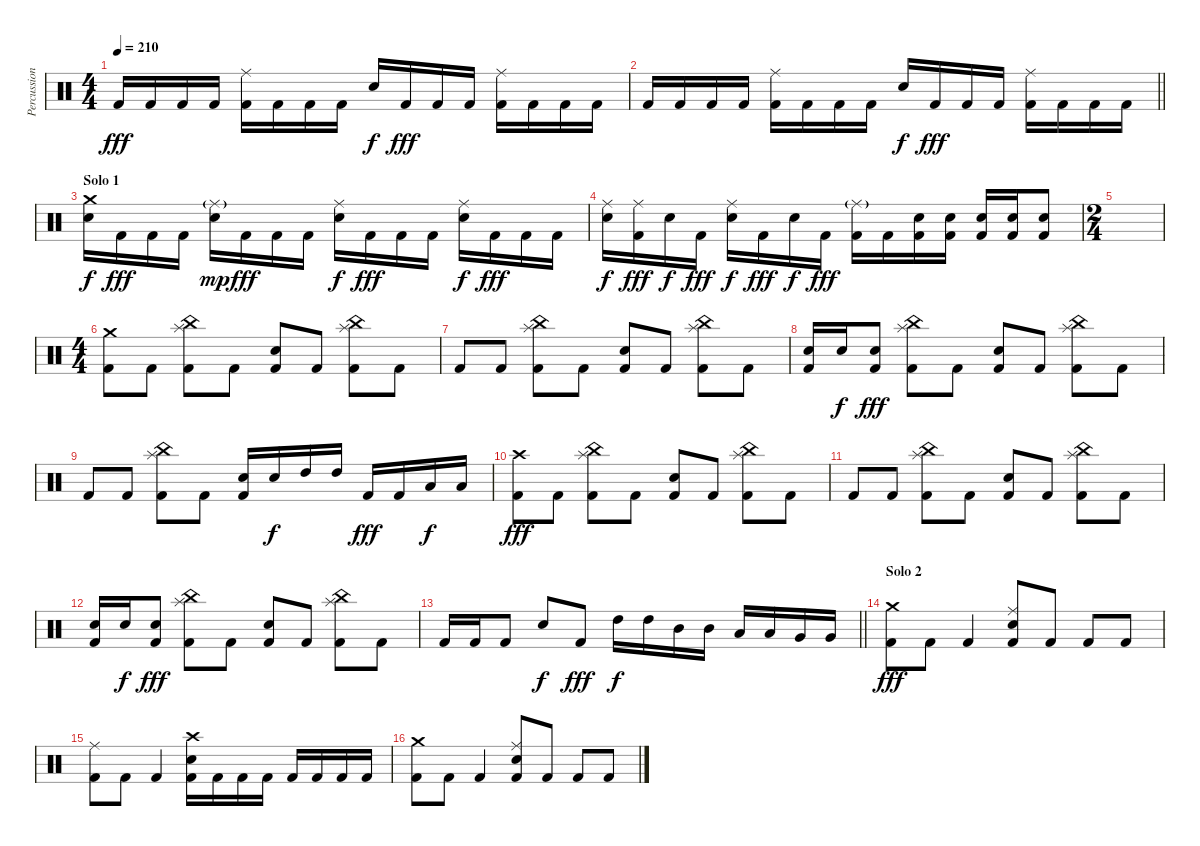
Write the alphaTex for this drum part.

\track ("Percussions" "Percussion") {instrument percussion}
\staff {score}
\articulation defaults
\ts (4 4)
\tempo 210
\clef neutral
\ks c "Kick (hit) 2".16{dy fff} "Kick (hit) 2".16 "Kick (hit) 2".16 "Kick (hit) 2".16
("Ride (middle)" "Kick (hit) 2").16 "Kick (hit) 2".16 "Kick (hit) 2".16 "Kick (hit) 2".16 "Electric Snare (hit)".16{dy f} "Kick (hit) 2".16{dy fff} "Kick (hit) 2".16 "Kick (hit) 2".16 ("Ride (middle)" "Kick (hit) 2").16 "Kick (hit) 2".16 "Kick (hit) 2".16 "Kick (hit) 2".16 |
\barLineRight lightlight "Kick (hit) 2".16 "Kick (hit) 2".16 "Kick (hit) 2".16 "Kick (hit) 2".16
("Ride (middle)" "Kick (hit) 2").16 "Kick (hit) 2".16 "Kick (hit) 2".16 "Kick (hit) 2".16 "Electric Snare (hit)".16{dy f} "Kick (hit) 2".16{dy fff} "Kick (hit) 2".16 "Kick (hit) 2".16 ("Ride (middle)" "Kick (hit) 2").16 "Kick (hit) 2".16 "Kick (hit) 2".16 "Kick (hit) 2".16 |
\section ("" "Solo 1")
("Crash medium (hit)" "Electric Snare (hit)").16{dy f} "Kick (hit) 2".16{dy fff} "Kick (hit) 2".16 "Kick (hit) 2".16 ("Ride (middle)"{g} "Electric Snare (hit)").16{dy mp} "Kick (hit) 2".16{dy fff} "Kick (hit) 2".16 "Kick (hit) 2".16 ("Ride (middle)" "Electric Snare (hit)").16{dy f} "Kick (hit) 2".16{dy fff} "Kick (hit) 2".16 "Kick (hit) 2".16 ("Ride (middle)" "Electric Snare (hit)").16{dy f} "Kick (hit) 2".16{dy fff} "Kick (hit) 2".16 "Kick (hit) 2".16 |
("Ride (middle)" "Electric Snare (hit)").16{dy f} ("Ride (middle)" "Kick (hit) 2").16{dy fff} "Electric Snare (hit)".16{dy f} "Kick (hit) 2".16{dy fff} ("Ride (middle)" "Electric Snare (hit)").16{dy f} "Kick (hit) 2".16{dy fff} "Electric Snare (hit)".16{dy f} "Kick (hit) 2".16{dy fff} ("Ride (middle)"{g} "Kick (hit) 2").16 "Kick (hit) 2".16 ("Electric Snare (hit)" "Kick (hit) 2").16 ("Electric Snare (hit)" "Kick (hit) 2").16 ("Electric Snare (hit)" "Kick (hit) 2").16 ("Electric Snare (hit)" "Kick (hit) 2").16 ("Electric Snare (hit)" "Kick (hit) 2").8 |
\ts (2 4)
|
\ts (4 4)
("Crash medium (hit)" "Kick (hit) 2").8 "Kick (hit) 2".8 ("Splash (hit)" "China (hit)" "Kick (hit) 2").8 "Kick (hit) 2".8 ("Electric Snare (hit)" "Kick (hit) 2").8 "Kick (hit) 2".8 ("Splash (hit)" "China (hit)" "Kick (hit) 2").8 "Kick (hit) 2".8 |
"Kick (hit) 2".8 "Kick (hit) 2".8 ("Splash (hit)" "China (hit)" "Kick (hit) 2").8 "Kick (hit) 2".8 ("Electric Snare (hit)" "Kick (hit) 2").8 "Kick (hit) 2".8 ("Splash (hit)" "China (hit)" "Kick (hit) 2").8 "Kick (hit) 2".8 |
("Electric Snare (hit)" "Kick (hit) 2").16 "Electric Snare (hit)".16{dy f} ("Electric Snare (hit)" "Kick (hit) 2").8{dy fff} ("Splash (hit)" "China (hit)" "Kick (hit) 2").8 "Kick (hit) 2".8 ("Electric Snare (hit)" "Kick (hit) 2").8 "Kick (hit) 2".8 ("Splash (hit)" "China (hit)" "Kick (hit) 2").8 "Kick (hit) 2".8 |
"Kick (hit) 2".8 "Kick (hit) 2".8 ("Splash (hit)" "China (hit)" "Kick (hit) 2").8 "Kick (hit) 2".8 ("Electric Snare (hit)" "Kick (hit) 2").16 "Electric Snare (hit)".16{dy f} "High Tom (hit)".16 "High Tom (hit)".16 "Kick (hit) 2".16{dy fff} "Kick (hit) 2".16 "Low Tom (hit)".16{dy f} "Low Tom (hit)".16 |
("Crash high (hit)" "Kick (hit) 2").8{dy fff} "Kick (hit) 2".8 ("Splash (hit)" "China (hit)" "Kick (hit) 2").8 "Kick (hit) 2".8 ("Electric Snare (hit)" "Kick (hit) 2").8 "Kick (hit) 2".8 ("Splash (hit)" "China (hit)" "Kick (hit) 2").8 "Kick (hit) 2".8 |
"Kick (hit) 2".8 "Kick (hit) 2".8 ("Splash (hit)" "China (hit)" "Kick (hit) 2").8 "Kick (hit) 2".8 ("Electric Snare (hit)" "Kick (hit) 2").8 "Kick (hit) 2".8 ("Splash (hit)" "China (hit)" "Kick (hit) 2").8 "Kick (hit) 2".8 |
("Electric Snare (hit)" "Kick (hit) 2").16 "Electric Snare (hit)".16{dy f} ("Electric Snare (hit)" "Kick (hit) 2").8{dy fff} ("Splash (hit)" "China (hit)" "Kick (hit) 2").8 "Kick (hit) 2".8 ("Electric Snare (hit)" "Kick (hit) 2").8 "Kick (hit) 2".8 ("Splash (hit)" "China (hit)" "Kick (hit) 2").8 "Kick (hit) 2".8 |
\barLineRight lightlight "Kick (hit) 2".16 "Kick (hit) 2".16 "Kick (hit) 2".8 "Electric Snare (hit)".8{dy f} "Kick (hit) 2".8{dy fff} "High Tom (hit)".16{dy f} "High Tom (hit)".16 "Mid Tom (hit)".16 "Mid Tom (hit)".16 "Low Tom (hit)".16 "Low Tom (hit)".16 "Very Low Tom (hit)".16 "Very Low Tom (hit)".16
|
\section ("" "Solo 2")
("Crash medium (hit)" "Kick (hit) 2").8{dy fff} "Kick (hit) 2".8 "Kick (hit) 2".4 ("Ride (middle)" "Electric Snare (hit)" "Kick (hit) 2").8 "Kick (hit) 2".8 "Kick (hit) 2".8 "Kick (hit) 2".8 |
("Ride (middle)" "Kick (hit) 2").8 "Kick (hit) 2".8 "Kick (hit) 2".4 ("Crash high (hit)" "Electric Snare (hit)" "Kick (hit) 2").16 "Kick (hit) 2".16 "Kick (hit) 2".16 "Kick (hit) 2".16 "Kick (hit) 2".16 "Kick (hit) 2".16 "Kick (hit) 2".16 "Kick (hit) 2".16 |
("Crash medium (hit)" "Kick (hit) 2").8 "Kick (hit) 2".8 "Kick (hit) 2".4 ("Ride (middle)" "Electric Snare (hit)" "Kick (hit) 2").8 "Kick (hit) 2".8 "Kick (hit) 2".8 "Kick (hit) 2".8
